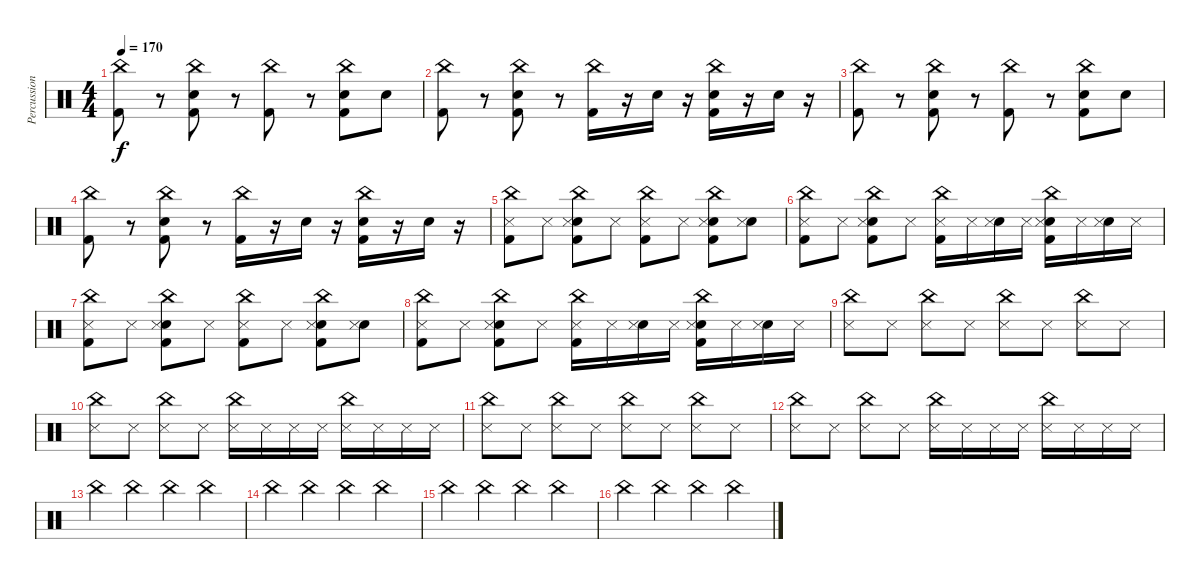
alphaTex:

\track ("Percussion" "Percussion") {instrument percussion}
\staff {score}
\articulation defaults
\ts (4 4)
\tempo 170
\clef neutral
\ks c
("China (hit)" "Kick (hit) 2").8{dy f} r.8 ("China (hit)" "Electric Snare (hit)" "Kick (hit) 2").8 r.8 ("China (hit)" "Kick (hit) 2").8 r.8 ("China (hit)" "Electric Snare (hit)" "Kick (hit) 2").8 "Electric Snare (hit)".8 |
("China (hit)" "Kick (hit) 2").8 r.8 ("China (hit)" "Electric Snare (hit)" "Kick (hit) 2").8 r.8 ("China (hit)" "Kick (hit) 2").16 r.16 "Electric Snare (hit)".16 r.16 ("China (hit)" "Electric Snare (hit)" "Kick (hit) 2").16 r.16 "Electric Snare (hit)".16 r.16 |
("China (hit)" "Kick (hit) 2").8 r.8 ("China (hit)" "Electric Snare (hit)" "Kick (hit) 2").8 r.8 ("China (hit)" "Kick (hit) 2").8 r.8 ("China (hit)" "Electric Snare (hit)" "Kick (hit) 2").8 "Electric Snare (hit)".8 |
("China (hit)" "Kick (hit) 2").8 r.8 ("China (hit)" "Electric Snare (hit)" "Kick (hit) 2").8 r.8 ("China (hit)" "Kick (hit) 2").16 r.16 "Electric Snare (hit)".16 r.16 ("China (hit)" "Electric Snare (hit)" "Kick (hit) 2").16 r.16 "Electric Snare (hit)".16 r.16 |
("China (hit)" "Snare (side stick) 3" "Kick (hit) 2").8 "Snare (side stick) 3".8 ("China (hit)" "Electric Snare (hit)" "Snare (side stick) 3" "Kick (hit) 2").8 "Snare (side stick) 3".8 ("China (hit)" "Snare (side stick) 3" "Kick (hit) 2").8 "Snare (side stick) 3".8 ("China (hit)" "Electric Snare (hit)" "Snare (side stick) 3" "Kick (hit) 2").8 ("Electric Snare (hit)" "Snare (side stick) 3").8 |
("China (hit)" "Snare (side stick) 3" "Kick (hit) 2").8 "Snare (side stick) 3".8 ("China (hit)" "Electric Snare (hit)" "Snare (side stick) 3" "Kick (hit) 2").8 "Snare (side stick) 3".8 ("China (hit)" "Snare (side stick) 3" "Kick (hit) 2").16 "Snare (side stick) 3".16 ("Electric Snare (hit)" "Snare (side stick) 3").16 "Snare (side stick) 3".16 ("China (hit)" "Electric Snare (hit)" "Snare (side stick) 3" "Kick (hit) 2").16 "Snare (side stick) 3".16 ("Electric Snare (hit)" "Snare (side stick) 3").16 "Snare (side stick) 3".16 |
("China (hit)" "Snare (side stick) 3" "Kick (hit) 2").8 "Snare (side stick) 3".8 ("China (hit)" "Electric Snare (hit)" "Snare (side stick) 3" "Kick (hit) 2").8 "Snare (side stick) 3".8 ("China (hit)" "Snare (side stick) 3" "Kick (hit) 2").8 "Snare (side stick) 3".8 ("China (hit)" "Electric Snare (hit)" "Snare (side stick) 3" "Kick (hit) 2").8 ("Electric Snare (hit)" "Snare (side stick) 3").8 |
("China (hit)" "Snare (side stick) 3" "Kick (hit) 2").8 "Snare (side stick) 3".8 ("China (hit)" "Electric Snare (hit)" "Snare (side stick) 3" "Kick (hit) 2").8 "Snare (side stick) 3".8 ("China (hit)" "Snare (side stick) 3" "Kick (hit) 2").16 "Snare (side stick) 3".16 ("Electric Snare (hit)" "Snare (side stick) 3").16 "Snare (side stick) 3".16 ("China (hit)" "Electric Snare (hit)" "Snare (side stick) 3" "Kick (hit) 2").16 "Snare (side stick) 3".16 ("Electric Snare (hit)" "Snare (side stick) 3").16 "Snare (side stick) 3".16 |
("China (hit)" "Snare (side stick) 3").8 "Snare (side stick) 3".8 ("China (hit)" "Snare (side stick) 3").8 "Snare (side stick) 3".8 ("China (hit)" "Snare (side stick) 3").8 "Snare (side stick) 3".8 ("China (hit)" "Snare (side stick) 3").8 "Snare (side stick) 3".8 |
("China (hit)" "Snare (side stick) 3").8 "Snare (side stick) 3".8 ("China (hit)" "Snare (side stick) 3").8 "Snare (side stick) 3".8 ("China (hit)" "Snare (side stick) 3").16 "Snare (side stick) 3".16 "Snare (side stick) 3".16 "Snare (side stick) 3".16 ("China (hit)" "Snare (side stick) 3").16 "Snare (side stick) 3".16 "Snare (side stick) 3".16 "Snare (side stick) 3".16 |
("China (hit)" "Snare (side stick) 3").8 "Snare (side stick) 3".8 ("China (hit)" "Snare (side stick) 3").8 "Snare (side stick) 3".8 ("China (hit)" "Snare (side stick) 3").8 "Snare (side stick) 3".8 ("China (hit)" "Snare (side stick) 3").8 "Snare (side stick) 3".8 |
("China (hit)" "Snare (side stick) 3").8 "Snare (side stick) 3".8 ("China (hit)" "Snare (side stick) 3").8 "Snare (side stick) 3".8 ("China (hit)" "Snare (side stick) 3").16 "Snare (side stick) 3".16 "Snare (side stick) 3".16 "Snare (side stick) 3".16 ("China (hit)" "Snare (side stick) 3").16 "Snare (side stick) 3".16 "Snare (side stick) 3".16 "Snare (side stick) 3".16 |
"China (hit)".4 "China (hit)".4 "China (hit)".4 "China (hit)".4 |
"China (hit)".4 "China (hit)".4 "China (hit)".4 "China (hit)".4 |
"China (hit)".4 "China (hit)".4 "China (hit)".4 "China (hit)".4 |
"China (hit)".4 "China (hit)".4 "China (hit)".4 "China (hit)".4
